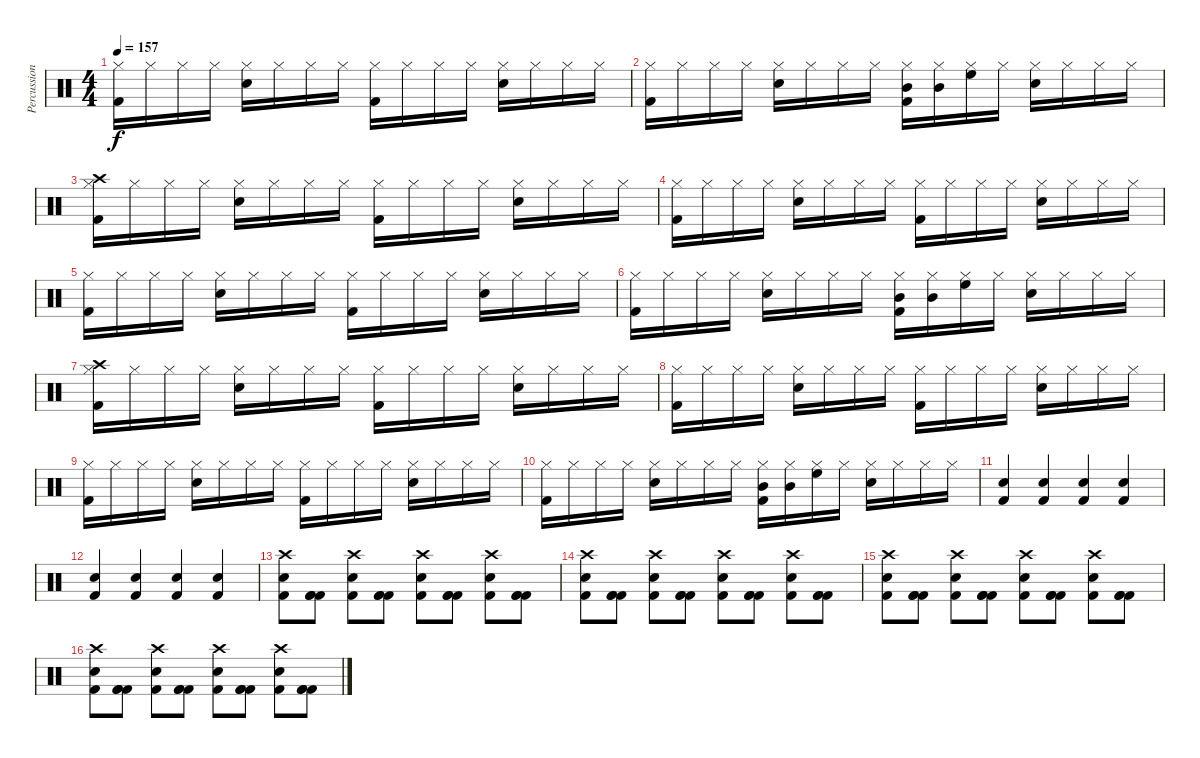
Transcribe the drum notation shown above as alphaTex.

\track ("Percussion" "Percussion") {instrument percussion}
\staff {score}
\articulation defaults
\ts (4 4)
\tempo 157
\clef neutral
\ks c
("Kick (hit) 2" "Hi-Hat (closed)").16{dy f} "Hi-Hat (closed)".16 "Hi-Hat (closed)".16 "Hi-Hat (closed)".16 ("Electric Snare (hit)" "Hi-Hat (closed)").16 "Hi-Hat (closed)".16 "Hi-Hat (closed)".16 "Hi-Hat (closed)".16 ("Kick (hit) 2" "Hi-Hat (closed)").16 "Hi-Hat (closed)".16 "Hi-Hat (closed)".16 "Hi-Hat (closed)".16 ("Electric Snare (hit)" "Hi-Hat (closed)").16 "Hi-Hat (closed)".16 "Hi-Hat (closed)".16 "Hi-Hat (closed)".16 |
("Kick (hit) 2" "Hi-Hat (closed)").16 "Hi-Hat (closed)".16 "Hi-Hat (closed)".16 "Hi-Hat (closed)".16 ("Electric Snare (hit)" "Hi-Hat (closed)").16 "Hi-Hat (closed)".16 "Hi-Hat (closed)".16 "Hi-Hat (closed)".16 ("Kick (hit) 2" "Hi-Hat (closed)" "Mid Tom (hit)").16 ("Hi-Hat (closed)" "Mid Tom (hit)").16 ("Hi-Hat (closed)" "High Floor Tom (hit)").16 "Hi-Hat (closed)".16 ("Electric Snare (hit)" "Hi-Hat (closed)").16 "Hi-Hat (closed)".16 "Hi-Hat (closed)".16 "Hi-Hat (closed)".16 |
("Kick (hit) 2" "Hi-Hat (closed)" "Crash high (hit)").16 "Hi-Hat (closed)".16 "Hi-Hat (closed)".16 "Hi-Hat (closed)".16 ("Electric Snare (hit)" "Hi-Hat (closed)").16 "Hi-Hat (closed)".16 "Hi-Hat (closed)".16 "Hi-Hat (closed)".16 ("Kick (hit) 2" "Hi-Hat (closed)").16 "Hi-Hat (closed)".16 "Hi-Hat (closed)".16 "Hi-Hat (closed)".16 ("Electric Snare (hit)" "Hi-Hat (closed)").16 "Hi-Hat (closed)".16 "Hi-Hat (closed)".16 "Hi-Hat (closed)".16 |
("Kick (hit) 2" "Hi-Hat (closed)").16 "Hi-Hat (closed)".16 "Hi-Hat (closed)".16 "Hi-Hat (closed)".16 ("Electric Snare (hit)" "Hi-Hat (closed)").16 "Hi-Hat (closed)".16 "Hi-Hat (closed)".16 "Hi-Hat (closed)".16 ("Kick (hit) 2" "Hi-Hat (closed)").16 "Hi-Hat (closed)".16 "Hi-Hat (closed)".16 "Hi-Hat (closed)".16 ("Electric Snare (hit)" "Hi-Hat (closed)").16 "Hi-Hat (closed)".16 "Hi-Hat (closed)".16 "Hi-Hat (closed)".16 |
("Kick (hit) 2" "Hi-Hat (closed)").16 "Hi-Hat (closed)".16 "Hi-Hat (closed)".16 "Hi-Hat (closed)".16 ("Electric Snare (hit)" "Hi-Hat (closed)").16 "Hi-Hat (closed)".16 "Hi-Hat (closed)".16 "Hi-Hat (closed)".16 ("Kick (hit) 2" "Hi-Hat (closed)").16 "Hi-Hat (closed)".16 "Hi-Hat (closed)".16 "Hi-Hat (closed)".16 ("Electric Snare (hit)" "Hi-Hat (closed)").16 "Hi-Hat (closed)".16 "Hi-Hat (closed)".16 "Hi-Hat (closed)".16 |
("Kick (hit) 2" "Hi-Hat (closed)").16 "Hi-Hat (closed)".16 "Hi-Hat (closed)".16 "Hi-Hat (closed)".16 ("Electric Snare (hit)" "Hi-Hat (closed)").16 "Hi-Hat (closed)".16 "Hi-Hat (closed)".16 "Hi-Hat (closed)".16 ("Kick (hit) 2" "Hi-Hat (closed)" "Mid Tom (hit)").16 ("Hi-Hat (closed)" "Mid Tom (hit)").16 ("Hi-Hat (closed)" "High Floor Tom (hit)").16 "Hi-Hat (closed)".16 ("Electric Snare (hit)" "Hi-Hat (closed)").16 "Hi-Hat (closed)".16 "Hi-Hat (closed)".16 "Hi-Hat (closed)".16 |
("Kick (hit) 2" "Hi-Hat (closed)" "Crash high (hit)").16 "Hi-Hat (closed)".16 "Hi-Hat (closed)".16 "Hi-Hat (closed)".16 ("Electric Snare (hit)" "Hi-Hat (closed)").16 "Hi-Hat (closed)".16 "Hi-Hat (closed)".16 "Hi-Hat (closed)".16 ("Kick (hit) 2" "Hi-Hat (closed)").16 "Hi-Hat (closed)".16 "Hi-Hat (closed)".16 "Hi-Hat (closed)".16 ("Electric Snare (hit)" "Hi-Hat (closed)").16 "Hi-Hat (closed)".16 "Hi-Hat (closed)".16 "Hi-Hat (closed)".16 |
("Kick (hit) 2" "Hi-Hat (closed)").16 "Hi-Hat (closed)".16 "Hi-Hat (closed)".16 "Hi-Hat (closed)".16 ("Electric Snare (hit)" "Hi-Hat (closed)").16 "Hi-Hat (closed)".16 "Hi-Hat (closed)".16 "Hi-Hat (closed)".16 ("Kick (hit) 2" "Hi-Hat (closed)").16 "Hi-Hat (closed)".16 "Hi-Hat (closed)".16 "Hi-Hat (closed)".16 ("Electric Snare (hit)" "Hi-Hat (closed)").16 "Hi-Hat (closed)".16 "Hi-Hat (closed)".16 "Hi-Hat (closed)".16 |
("Kick (hit) 2" "Hi-Hat (closed)").16 "Hi-Hat (closed)".16 "Hi-Hat (closed)".16 "Hi-Hat (closed)".16 ("Electric Snare (hit)" "Hi-Hat (closed)").16 "Hi-Hat (closed)".16 "Hi-Hat (closed)".16 "Hi-Hat (closed)".16 ("Kick (hit) 2" "Hi-Hat (closed)").16 "Hi-Hat (closed)".16 "Hi-Hat (closed)".16 "Hi-Hat (closed)".16 ("Electric Snare (hit)" "Hi-Hat (closed)").16 "Hi-Hat (closed)".16 "Hi-Hat (closed)".16 "Hi-Hat (closed)".16 |
("Kick (hit) 2" "Hi-Hat (closed)").16 "Hi-Hat (closed)".16 "Hi-Hat (closed)".16 "Hi-Hat (closed)".16 ("Electric Snare (hit)" "Hi-Hat (closed)").16 "Hi-Hat (closed)".16 "Hi-Hat (closed)".16 "Hi-Hat (closed)".16 ("Kick (hit) 2" "Hi-Hat (closed)" "Mid Tom (hit)").16 ("Hi-Hat (closed)" "Mid Tom (hit)").16 ("Hi-Hat (closed)" "High Floor Tom (hit)").16 "Hi-Hat (closed)".16 ("Electric Snare (hit)" "Hi-Hat (closed)").16 "Hi-Hat (closed)".16 "Hi-Hat (closed)".16 "Hi-Hat (closed)".16 |
("Kick (hit) 2" "Electric Snare (hit)").4 ("Kick (hit) 2" "Electric Snare (hit)").4 ("Kick (hit) 2" "Electric Snare (hit)").4 ("Kick (hit) 2" "Electric Snare (hit)").4 |
("Kick (hit) 2" "Electric Snare (hit)").4 ("Kick (hit) 2" "Electric Snare (hit)").4 ("Kick (hit) 2" "Electric Snare (hit)").4 ("Kick (hit) 2" "Electric Snare (hit)").4 |
("Kick (hit) 2" "Electric Snare (hit)" "Crash high (hit)").8 ("Kick (hit) 2" "Kick (hit) 2" "Kick (hit) 2").8 ("Kick (hit) 2" "Electric Snare (hit)" "Crash high (hit)").8 ("Kick (hit) 2" "Kick (hit) 2" "Kick (hit) 2").8 ("Kick (hit) 2" "Electric Snare (hit)" "Crash high (hit)").8 ("Kick (hit) 2" "Kick (hit) 2" "Kick (hit) 2").8 ("Kick (hit) 2" "Electric Snare (hit)" "Crash high (hit)").8 ("Kick (hit) 2" "Kick (hit) 2" "Kick (hit) 2").8 |
("Kick (hit) 2" "Electric Snare (hit)" "Crash high (hit)").8 ("Kick (hit) 2" "Kick (hit) 2" "Kick (hit) 2").8 ("Kick (hit) 2" "Electric Snare (hit)" "Crash high (hit)").8 ("Kick (hit) 2" "Kick (hit) 2" "Kick (hit) 2").8 ("Kick (hit) 2" "Electric Snare (hit)" "Crash high (hit)").8 ("Kick (hit) 2" "Kick (hit) 2" "Kick (hit) 2").8 ("Kick (hit) 2" "Electric Snare (hit)" "Crash high (hit)").8 ("Kick (hit) 2" "Kick (hit) 2" "Kick (hit) 2").8 |
("Kick (hit) 2" "Electric Snare (hit)" "Crash high (hit)").8 ("Kick (hit) 2" "Kick (hit) 2" "Kick (hit) 2").8 ("Kick (hit) 2" "Electric Snare (hit)" "Crash high (hit)").8 ("Kick (hit) 2" "Kick (hit) 2" "Kick (hit) 2").8 ("Kick (hit) 2" "Electric Snare (hit)" "Crash high (hit)").8 ("Kick (hit) 2" "Kick (hit) 2" "Kick (hit) 2").8 ("Kick (hit) 2" "Electric Snare (hit)" "Crash high (hit)").8 ("Kick (hit) 2" "Kick (hit) 2" "Kick (hit) 2").8 |
("Kick (hit) 2" "Electric Snare (hit)" "Crash high (hit)").8 ("Kick (hit) 2" "Kick (hit) 2" "Kick (hit) 2").8 ("Kick (hit) 2" "Electric Snare (hit)" "Crash high (hit)").8 ("Kick (hit) 2" "Kick (hit) 2" "Kick (hit) 2").8 ("Kick (hit) 2" "Electric Snare (hit)" "Crash high (hit)").8 ("Kick (hit) 2" "Kick (hit) 2" "Kick (hit) 2").8 ("Kick (hit) 2" "Electric Snare (hit)" "Crash high (hit)").8 ("Kick (hit) 2" "Kick (hit) 2" "Kick (hit) 2").8
